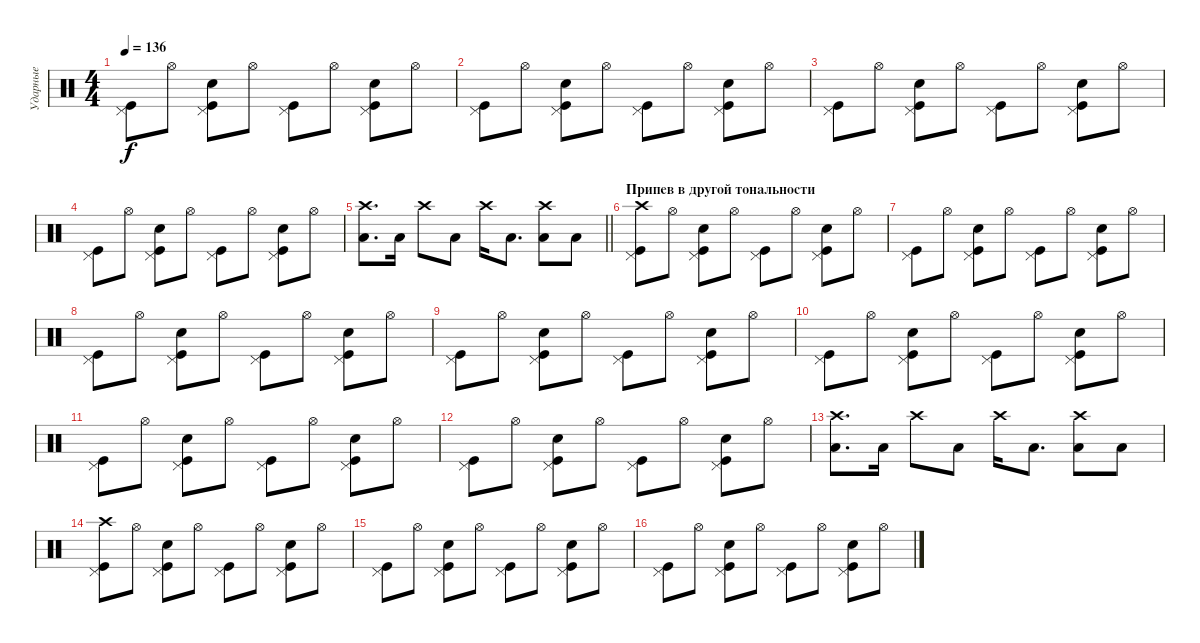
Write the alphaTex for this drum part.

\track ("Ударные" "Ударные") {instrument percussion}
\staff {score}
\articulation defaults
\ts (4 4)
\tempo 136
\clef neutral
\ks c
("Kick (hit)" "Pedal Hi-Hat (hit)").8{dy f} "Hi-Hat (open)".8 ("Kick (hit)" "Hand Clap (hit)" "Pedal Hi-Hat (hit)").8 "Hi-Hat (open)".8 ("Kick (hit)" "Pedal Hi-Hat (hit)").8 "Hi-Hat (open)".8 ("Kick (hit)" "Hand Clap (hit)" "Pedal Hi-Hat (hit)").8 "Hi-Hat (open)".8 |
("Kick (hit)" "Pedal Hi-Hat (hit)").8 "Hi-Hat (open)".8 ("Kick (hit)" "Hand Clap (hit)" "Pedal Hi-Hat (hit)").8 "Hi-Hat (open)".8 ("Kick (hit)" "Pedal Hi-Hat (hit)").8 "Hi-Hat (open)".8 ("Kick (hit)" "Hand Clap (hit)" "Pedal Hi-Hat (hit)").8 "Hi-Hat (open)".8 |
("Kick (hit)" "Pedal Hi-Hat (hit)").8 "Hi-Hat (open)".8 ("Kick (hit)" "Hand Clap (hit)" "Pedal Hi-Hat (hit)").8 "Hi-Hat (open)".8 ("Kick (hit)" "Pedal Hi-Hat (hit)").8 "Hi-Hat (open)".8 ("Kick (hit)" "Hand Clap (hit)" "Pedal Hi-Hat (hit)").8 "Hi-Hat (open)".8 |
("Kick (hit)" "Pedal Hi-Hat (hit)").8 "Hi-Hat (open)".8 ("Kick (hit)" "Hand Clap (hit)" "Pedal Hi-Hat (hit)").8 "Hi-Hat (open)".8 ("Kick (hit)" "Pedal Hi-Hat (hit)").8 "Hi-Hat (open)".8 ("Kick (hit)" "Hand Clap (hit)" "Pedal Hi-Hat (hit)").8 "Hi-Hat (open)".8 |
\barLineRight lightlight
("Low Tom (hit)" "Crash high (hit)").8{d} "Low Tom (hit)".16 "Crash high (hit)".8 "Low Tom (hit)".8 "Crash high (hit)".16 "Low Tom (hit)".8{d} ("Low Tom (hit)" "Crash high (hit)").8 "Low Tom (hit)".8 |
\section ("" "Припев в другой тональности")
("Kick (hit)" "Crash high (hit)" "Pedal Hi-Hat (hit)").8 "Hi-Hat (open)".8 ("Kick (hit)" "Hand Clap (hit)" "Pedal Hi-Hat (hit)").8 "Hi-Hat (open)".8 ("Kick (hit)" "Pedal Hi-Hat (hit)").8 "Hi-Hat (open)".8 ("Kick (hit)" "Hand Clap (hit)" "Pedal Hi-Hat (hit)").8 "Hi-Hat (open)".8 |
("Kick (hit)" "Pedal Hi-Hat (hit)").8 "Hi-Hat (open)".8 ("Kick (hit)" "Hand Clap (hit)" "Pedal Hi-Hat (hit)").8 "Hi-Hat (open)".8 ("Kick (hit)" "Pedal Hi-Hat (hit)").8 "Hi-Hat (open)".8 ("Kick (hit)" "Hand Clap (hit)" "Pedal Hi-Hat (hit)").8 "Hi-Hat (open)".8 |
("Kick (hit)" "Pedal Hi-Hat (hit)").8 "Hi-Hat (open)".8 ("Kick (hit)" "Hand Clap (hit)" "Pedal Hi-Hat (hit)").8 "Hi-Hat (open)".8 ("Kick (hit)" "Pedal Hi-Hat (hit)").8 "Hi-Hat (open)".8 ("Kick (hit)" "Hand Clap (hit)" "Pedal Hi-Hat (hit)").8 "Hi-Hat (open)".8 |
("Kick (hit)" "Pedal Hi-Hat (hit)").8 "Hi-Hat (open)".8 ("Kick (hit)" "Hand Clap (hit)" "Pedal Hi-Hat (hit)").8 "Hi-Hat (open)".8 ("Kick (hit)" "Pedal Hi-Hat (hit)").8 "Hi-Hat (open)".8 ("Kick (hit)" "Hand Clap (hit)" "Pedal Hi-Hat (hit)").8 "Hi-Hat (open)".8 |
("Kick (hit)" "Pedal Hi-Hat (hit)").8 "Hi-Hat (open)".8 ("Kick (hit)" "Hand Clap (hit)" "Pedal Hi-Hat (hit)").8 "Hi-Hat (open)".8 ("Kick (hit)" "Pedal Hi-Hat (hit)").8 "Hi-Hat (open)".8 ("Kick (hit)" "Hand Clap (hit)" "Pedal Hi-Hat (hit)").8 "Hi-Hat (open)".8 |
("Kick (hit)" "Pedal Hi-Hat (hit)").8 "Hi-Hat (open)".8 ("Kick (hit)" "Hand Clap (hit)" "Pedal Hi-Hat (hit)").8 "Hi-Hat (open)".8 ("Kick (hit)" "Pedal Hi-Hat (hit)").8 "Hi-Hat (open)".8 ("Kick (hit)" "Hand Clap (hit)" "Pedal Hi-Hat (hit)").8 "Hi-Hat (open)".8 |
("Kick (hit)" "Pedal Hi-Hat (hit)").8 "Hi-Hat (open)".8 ("Kick (hit)" "Hand Clap (hit)" "Pedal Hi-Hat (hit)").8 "Hi-Hat (open)".8 ("Kick (hit)" "Pedal Hi-Hat (hit)").8 "Hi-Hat (open)".8 ("Kick (hit)" "Hand Clap (hit)" "Pedal Hi-Hat (hit)").8 "Hi-Hat (open)".8 |
("Low Tom (hit)" "Crash high (hit)").8{d} "Low Tom (hit)".16 "Crash high (hit)".8 "Low Tom (hit)".8 "Crash high (hit)".16 "Low Tom (hit)".8{d} ("Low Tom (hit)" "Crash high (hit)").8 "Low Tom (hit)".8 |
("Kick (hit)" "Crash high (hit)" "Pedal Hi-Hat (hit)").8 "Hi-Hat (open)".8 ("Kick (hit)" "Hand Clap (hit)" "Pedal Hi-Hat (hit)").8 "Hi-Hat (open)".8 ("Kick (hit)" "Pedal Hi-Hat (hit)").8 "Hi-Hat (open)".8 ("Kick (hit)" "Hand Clap (hit)" "Pedal Hi-Hat (hit)").8 "Hi-Hat (open)".8 |
("Kick (hit)" "Pedal Hi-Hat (hit)").8 "Hi-Hat (open)".8 ("Kick (hit)" "Hand Clap (hit)" "Pedal Hi-Hat (hit)").8 "Hi-Hat (open)".8 ("Kick (hit)" "Pedal Hi-Hat (hit)").8 "Hi-Hat (open)".8 ("Kick (hit)" "Hand Clap (hit)" "Pedal Hi-Hat (hit)").8 "Hi-Hat (open)".8 |
("Kick (hit)" "Pedal Hi-Hat (hit)").8 "Hi-Hat (open)".8 ("Kick (hit)" "Hand Clap (hit)" "Pedal Hi-Hat (hit)").8 "Hi-Hat (open)".8 ("Kick (hit)" "Pedal Hi-Hat (hit)").8 "Hi-Hat (open)".8 ("Kick (hit)" "Hand Clap (hit)" "Pedal Hi-Hat (hit)").8 "Hi-Hat (open)".8
